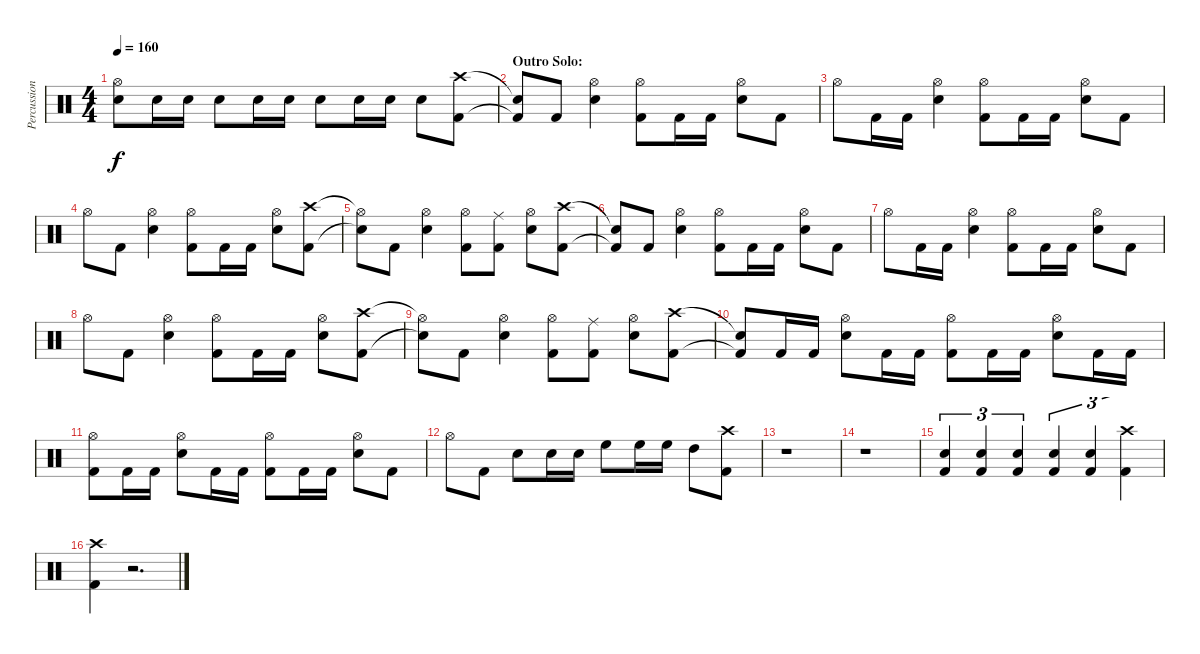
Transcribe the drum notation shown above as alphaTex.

\track ("Percussion" "Percussion") {instrument percussion}
\staff {score}
\articulation defaults
\ts (4 4)
\tempo 160
\clef neutral
\ks c
("Hi-Hat (open)"{t} "Snare (hit)"{t}).8{dy f} "Electric Snare (hit)".16 "Electric Snare (hit)".16 "Electric Snare (hit)".8 "Electric Snare (hit)".16 "Electric Snare (hit)".16 "Electric Snare (hit)".8 "Electric Snare (hit)".16 "Electric Snare (hit)".16 "Electric Snare (hit)".8 ("Crash high (hit)" "Kick (hit) 2").8 |
\section ("" "Outro Solo:")
("Snare (hit)"{t} "Kick (hit) 2"{t}).8 "Kick (hit) 2".8 ("Hi-Hat (open)" "Electric Snare (hit)").4 ("Hi-Hat (open)" "Kick (hit) 2").8 "Kick (hit) 2".16 "Kick (hit) 2".16 ("Hi-Hat (open)" "Electric Snare (hit)").8 "Kick (hit) 2".8 |
"Hi-Hat (open)".8 "Kick (hit) 2".16 "Kick (hit) 2".16 ("Hi-Hat (open)" "Electric Snare (hit)").4 ("Hi-Hat (open)" "Kick (hit) 2").8 "Kick (hit) 2".16 "Kick (hit) 2".16 ("Hi-Hat (open)" "Electric Snare (hit)").8 "Kick (hit) 2".8 |
"Hi-Hat (open)".8 "Kick (hit) 2".8 ("Hi-Hat (open)" "Electric Snare (hit)").4 ("Hi-Hat (open)" "Kick (hit) 2").8 "Kick (hit) 2".16 "Kick (hit) 2".16 ("Hi-Hat (open)" "Electric Snare (hit)").8 ("Crash high (hit)" "Kick (hit) 2").8 |
("Hi-Hat (open)"{t} "Snare (hit)"{t}).8 "Kick (hit) 2".8 ("Hi-Hat (open)" "Electric Snare (hit)").4 ("Hi-Hat (open)" "Kick (hit) 2").8 ("Ride (middle)" "Kick (hit) 2").8 ("Hi-Hat (open)" "Electric Snare (hit)").8 ("Crash high (hit)" "Kick (hit) 2").8 |
("Snare (hit)"{t} "Kick (hit) 2"{t}).8 "Kick (hit) 2".8 ("Hi-Hat (open)" "Electric Snare (hit)").4 ("Hi-Hat (open)" "Kick (hit) 2").8 "Kick (hit) 2".16 "Kick (hit) 2".16 ("Hi-Hat (open)" "Electric Snare (hit)").8 "Kick (hit) 2".8 |
"Hi-Hat (open)".8 "Kick (hit) 2".16 "Kick (hit) 2".16 ("Hi-Hat (open)" "Electric Snare (hit)").4 ("Hi-Hat (open)" "Kick (hit) 2").8 "Kick (hit) 2".16 "Kick (hit) 2".16 ("Hi-Hat (open)" "Electric Snare (hit)").8 "Kick (hit) 2".8 |
"Hi-Hat (open)".8 "Kick (hit) 2".8 ("Hi-Hat (open)" "Electric Snare (hit)").4 ("Hi-Hat (open)" "Kick (hit) 2").8 "Kick (hit) 2".16 "Kick (hit) 2".16 ("Hi-Hat (open)" "Electric Snare (hit)").8 ("Crash high (hit)" "Kick (hit) 2").8 |
("Hi-Hat (open)"{t} "Snare (hit)"{t}).8 "Kick (hit) 2".8 ("Hi-Hat (open)" "Electric Snare (hit)").4 ("Hi-Hat (open)" "Kick (hit) 2").8 ("Ride (middle)" "Kick (hit) 2").8 ("Hi-Hat (open)" "Electric Snare (hit)").8 ("Crash high (hit)" "Kick (hit) 2").8 |
("Snare (hit)"{t} "Kick (hit) 2"{t}).8 "Kick (hit) 2".16 "Kick (hit) 2".16 ("Hi-Hat (open)" "Electric Snare (hit)").8 "Kick (hit) 2".16 "Kick (hit) 2".16 ("Hi-Hat (open)" "Kick (hit) 2").8 "Kick (hit) 2".16 "Kick (hit) 2".16 ("Hi-Hat (open)" "Electric Snare (hit)").8 "Kick (hit) 2".16 "Kick (hit) 2".16 |
("Hi-Hat (open)" "Kick (hit) 2").8 "Kick (hit) 2".16 "Kick (hit) 2".16 ("Hi-Hat (open)" "Electric Snare (hit)").8 "Kick (hit) 2".16 "Kick (hit) 2".16 ("Hi-Hat (open)" "Kick (hit) 2").8 "Kick (hit) 2".16 "Kick (hit) 2".16 ("Hi-Hat (open)" "Electric Snare (hit)").8 "Kick (hit) 2".8 |
"Hi-Hat (open)".8 "Kick (hit) 2".8 "Electric Snare (hit)".8 "Electric Snare (hit)".16 "Electric Snare (hit)".16 "High Floor Tom (hit)".8 "High Floor Tom (hit)".16 "High Floor Tom (hit)".16 "High Tom (hit)".8 ("Crash high (hit)" "Kick (hit) 2").8 |
r.1 |
r.1 |
("Electric Snare (hit)" "Kick (hit) 2").4{tu (3 2)} ("Electric Snare (hit)" "Kick (hit) 2").4{tu (3 2)} ("Electric Snare (hit)" "Kick (hit) 2").4{tu (3 2)} ("Electric Snare (hit)" "Kick (hit) 2").4{tu (3 2)} ("Electric Snare (hit)" "Kick (hit) 2").4{tu (3 2)} ("Crash high (hit)" "Kick (hit) 2").4{tu (3 2)} |
("Crash high (hit)" "Kick (hit) 2").4 r.2{d}
